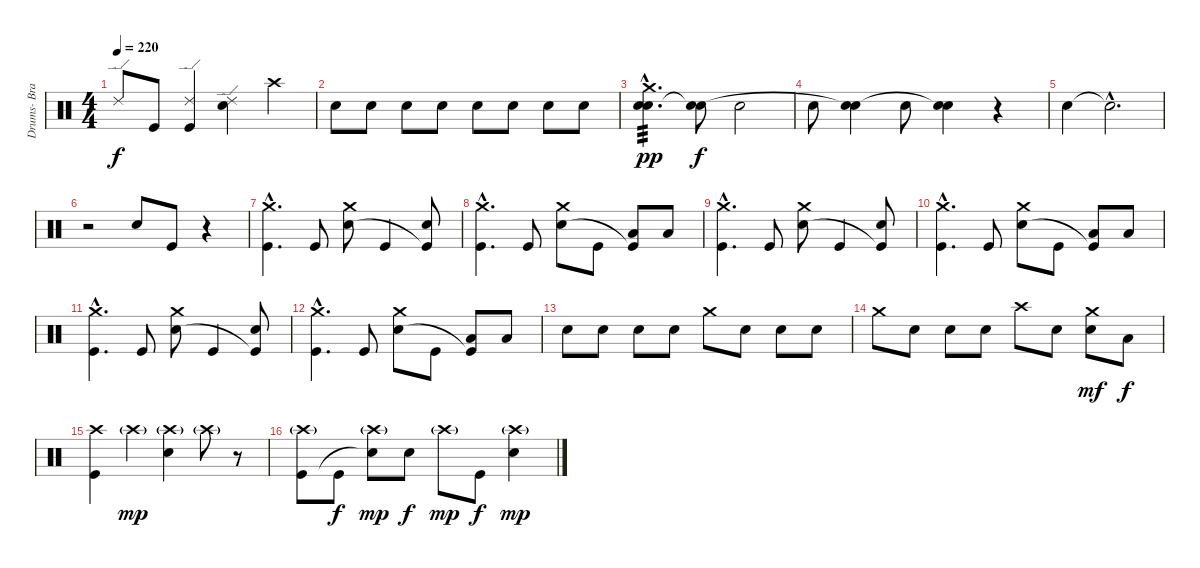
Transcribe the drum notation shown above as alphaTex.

\track ("Drums- Branden Steineckert" "Drums- Bra") {instrument percussion}
\staff {score}
\articulation defaults
\ts (4 4)
\tempo 220
\clef neutral
\ks c "Ride (edge) 2".8{dy f} "Kick (hit)".8
("Ride (edge) 2" "Kick (hit)").4 ("Ride (edge) 2" "Snare (hit) 2").4 "Crash high (hit)".4 |
"Snare (hit) 2".8 "Snare (hit) 2".8 "Snare (hit) 2".8 "Snare (hit) 2".8 "Snare (hit) 2".8 "Snare (hit) 2".8 "Snare (hit) 2".8 "Snare (hit) 2".8 |
("Crash medium (hit)"{hac} "Snare (hit) 2"{hac} "Electric Snare (hit)"{hac}).4{d tp 3 dy pp} ("Snare (hit) 2" "Snare (hit)"{t}).8{dy f} "Snare (hit) 2".2 |
"Snare (hit) 2".8 ("Snare (hit) 2" "Snare (hit)"{t}).4 "Snare (hit) 2".8 ("Snare (hit) 2" "Snare (hit)"{t}).4 r.4 |
"Snare (hit) 2".4 "Snare (hit)"{hac t}.2{d} |
r.2 "Snare (hit) 2".8 "Kick (hit)".8 r.4 |
("Crash medium (hit)"{hac} "Kick (hit)"{hac}).4{d} "Kick (hit)".8 ("Crash medium (hit)" "Snare (hit) 2").8 "Kick (hit)".4 ("Snare (hit) 2" "Kick (hit)"{t}).8 |
("Crash medium (hit)"{hac} "Kick (hit)"{hac}).4{d} "Kick (hit)".8 ("Crash medium (hit)" "Snare (hit) 2").8 "Kick (hit)".8 ("Low Tom (hit)" "Kick (hit)"{t}).8 "Low Floor Tom (hit)".8 |
("Crash medium (hit)"{hac} "Kick (hit)"{hac}).4{d} "Kick (hit)".8 ("Crash medium (hit)" "Snare (hit) 2").8 "Kick (hit)".4 ("Snare (hit) 2" "Kick (hit)"{t}).8 |
("Crash medium (hit)"{hac} "Kick (hit)"{hac}).4{d} "Kick (hit)".8 ("Crash medium (hit)" "Snare (hit) 2").8 "Kick (hit)".8 ("Low Tom (hit)" "Kick (hit)"{t}).8 "Low Floor Tom (hit)".8 |
("Crash medium (hit)"{hac} "Kick (hit)"{hac}).4{d} "Kick (hit)".8 ("Crash medium (hit)" "Snare (hit) 2").8 "Kick (hit)".4 ("Snare (hit) 2" "Kick (hit)"{t}).8 |
("Crash medium (hit)"{hac} "Kick (hit)"{hac}).4{d} "Kick (hit)".8 ("Crash medium (hit)" "Snare (hit) 2").8 "Kick (hit)".8 ("Low Tom (hit)" "Kick (hit)"{t}).8 "Low Floor Tom (hit)".8 |
"Snare (hit) 2".8 "Snare (hit) 2".8 "Snare (hit) 2".8 "Snare (hit) 2".8 "Crash medium (hit)".8 "Snare (hit) 2".8 "Snare (hit) 2".8 "Snare (hit) 2".8 |
"Crash medium (hit)".8 "Snare (hit) 2".8 "Snare (hit) 2".8 "Snare (hit) 2".8 "Crash high (hit)".8 "Snare (hit) 2".8 ("Crash medium (hit)" "Snare (hit) 2").8{dy mf} "Low Tom (hit)".8{dy f} |
("Crash high (hit)" "Kick (hit)").4 "Crash high (hit)"{g}.4{dy mp} ("Crash high (hit)"{g} "Snare (hit) 2").4 "Crash high (hit)"{g}.8 r.8 |
("Crash high (hit)"{g} "Kick (hit)").8 "Kick (hit)".8{dy f} ("Crash high (hit)"{g} "Snare (hit)"{t}).8{dy mp} "Snare (hit) 2".8{dy f} "Crash high (hit)"{g}.8{dy mp} "Kick (hit)".8{dy f} ("Crash high (hit)"{g} "Snare (hit) 2").4{dy mp}
